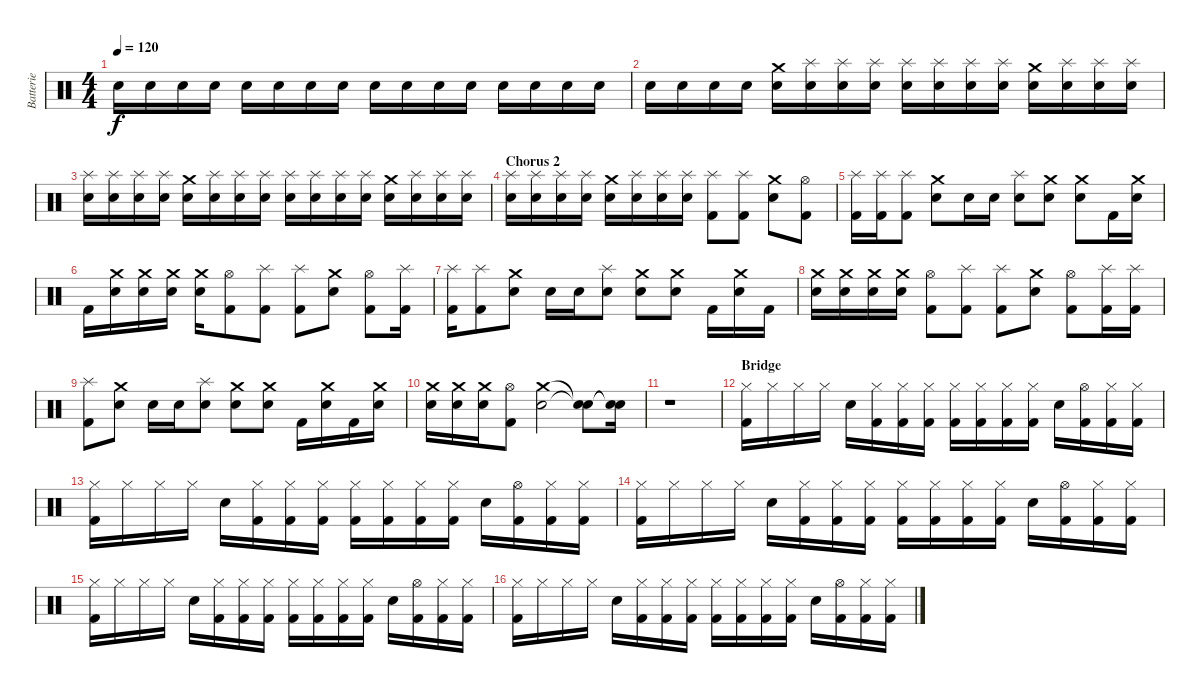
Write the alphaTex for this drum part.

\track ("Batterie" "Batterie") {instrument percussion}
\staff {score}
\articulation defaults
\ts (4 4)
\tempo 120
\clef neutral
\ks c "Snare (hit) 2".16{dy f} "Snare (hit) 2".16 "Snare (hit) 2".16 "Snare (hit) 2".16 "Snare (hit) 2".16 "Snare (hit) 2".16 "Snare (hit) 2".16 "Snare (hit) 2".16 "Snare (hit) 2".16{volume 8} "Snare (hit) 2".16{volume 13} "Snare (hit) 2".16 "Snare (hit) 2".16 "Snare (hit) 2".16 "Snare (hit) 2".16 "Snare (hit) 2".16 "Snare (hit) 2".16
|
"Snare (hit) 2".16 "Snare (hit) 2".16 "Snare (hit) 2".16 "Snare (hit) 2".16 ("Crash medium (hit)" "Snare (hit) 2").16{volume 16} ("Splash (hit)" "Snare (hit) 2").16 ("Splash (hit)" "Snare (hit) 2").16 ("Splash (hit)" "Snare (hit) 2").16 ("Splash (hit)" "Snare (hit) 2").16 ("Splash (hit)" "Snare (hit) 2").16 ("Splash (hit)" "Snare (hit) 2").16 ("Splash (hit)" "Snare (hit) 2").16 ("Crash medium (hit)" "Snare (hit) 2").16 ("Splash (hit)" "Snare (hit) 2").16 ("Splash (hit)" "Snare (hit) 2").16 ("Splash (hit)" "Snare (hit) 2").16 |
("Splash (hit)" "Snare (hit) 2").16 ("Splash (hit)" "Snare (hit) 2").16 ("Splash (hit)" "Snare (hit) 2").16 ("Splash (hit)" "Snare (hit) 2").16 ("Crash medium (hit)" "Snare (hit) 2").16 ("Splash (hit)" "Snare (hit) 2").16 ("Splash (hit)" "Snare (hit) 2").16 ("Splash (hit)" "Snare (hit) 2").16 ("Splash (hit)" "Snare (hit) 2").16 ("Splash (hit)" "Snare (hit) 2").16 ("Splash (hit)" "Snare (hit) 2").16 ("Splash (hit)" "Snare (hit) 2").16 ("Crash medium (hit)" "Snare (hit) 2").16 ("Splash (hit)" "Snare (hit) 2").16 ("Splash (hit)" "Snare (hit) 2").16 ("Splash (hit)" "Snare (hit) 2").16 |
\section ("" "Chorus 2")
("Splash (hit)" "Snare (hit) 2").16 ("Splash (hit)" "Snare (hit) 2").16 ("Splash (hit)" "Snare (hit) 2").16 ("Splash (hit)" "Snare (hit) 2").16 ("Crash medium (hit)" "Snare (hit) 2").16 ("Splash (hit)" "Snare (hit) 2").16 ("Splash (hit)" "Snare (hit) 2").16 ("Splash (hit)" "Snare (hit) 2").16 ("Splash (hit)" "Kick (hit) 2").8 ("Splash (hit)" "Kick (hit) 2").8 ("Crash medium (hit)" "Snare (hit) 2").8 ("Hi-Hat (open)" "Kick (hit) 2").8 |
("Splash (hit)" "Kick (hit) 2").16 ("Splash (hit)" "Kick (hit) 2").16 ("Splash (hit)" "Kick (hit) 2").8 ("Crash medium (hit)" "Snare (hit) 2").8 "Snare (hit) 2".16 "Snare (hit) 2".16 ("Splash (hit)" "Snare (hit) 2").8 ("Crash medium (hit)" "Snare (hit) 2").8 ("Crash medium (hit)" "Snare (hit) 2").8 "Kick (hit) 2".16 ("Crash medium (hit)" "Snare (hit) 2").16 |
"Kick (hit) 2".16 ("Crash medium (hit)" "Snare (hit) 2").16 ("Crash medium (hit)" "Snare (hit) 2").16 ("Crash medium (hit)" "Snare (hit) 2").16 ("Crash medium (hit)" "Snare (hit) 2").16 ("Hi-Hat (open)" "Kick (hit) 2").8 ("Splash (hit)" "Kick (hit) 2").8 ("Splash (hit)" "Kick (hit) 2").8 ("Crash medium (hit)" "Snare (hit) 2").8 ("Hi-Hat (open)" "Kick (hit) 2").8 ("Splash (hit)" "Kick (hit) 2").16 |
("Splash (hit)" "Kick (hit) 2").16 ("Splash (hit)" "Kick (hit) 2").8 ("Crash medium (hit)" "Snare (hit) 2").8 "Snare (hit) 2".16 "Snare (hit) 2".16 ("Splash (hit)" "Snare (hit) 2").8 ("Crash medium (hit)" "Snare (hit) 2").8 ("Crash medium (hit)" "Snare (hit) 2").8 "Kick (hit) 2".16 ("Crash medium (hit)" "Snare (hit) 2").16 "Kick (hit) 2".16 |
("Crash medium (hit)" "Snare (hit) 2").16 ("Crash medium (hit)" "Snare (hit) 2").16 ("Crash medium (hit)" "Snare (hit) 2").16 ("Crash medium (hit)" "Snare (hit) 2").16 ("Hi-Hat (open)" "Kick (hit) 2").8 ("Splash (hit)" "Kick (hit) 2").8 ("Splash (hit)" "Kick (hit) 2").8 ("Crash medium (hit)" "Snare (hit) 2").8 ("Hi-Hat (open)" "Kick (hit) 2").8 ("Splash (hit)" "Kick (hit) 2").16 ("Splash (hit)" "Kick (hit) 2").16 |
("Splash (hit)" "Kick (hit) 2").8 ("Crash medium (hit)" "Snare (hit) 2").8 "Snare (hit) 2".16 "Snare (hit) 2".16 ("Splash (hit)" "Snare (hit) 2").8 ("Crash medium (hit)" "Snare (hit) 2").8 ("Crash medium (hit)" "Snare (hit) 2").8 "Kick (hit) 2".16 ("Crash medium (hit)" "Snare (hit) 2").16 "Kick (hit) 2".16 ("Crash medium (hit)" "Snare (hit) 2").16 |
("Crash medium (hit)" "Snare (hit) 2").16 ("Crash medium (hit)" "Snare (hit) 2").16 ("Crash medium (hit)" "Snare (hit) 2").16 ("Hi-Hat (open)" "Kick (hit) 2").8 ("Crash medium (hit)" "Snare (hit) 2").2 ("Snare (hit)"{t} "Snare (hit)"{t}).8 ("Snare (hit)"{t} "Snare (hit)"{t}).16 |
r.1 |
\section ("" "Bridge")
("Hi-Hat (closed)" "Kick (hit) 2").16 "Hi-Hat (closed)".16 "Hi-Hat (closed)".16 "Hi-Hat (closed)".16 "Snare (hit) 2".16 ("Hi-Hat (closed)" "Kick (hit) 2").16 ("Hi-Hat (closed)" "Kick (hit) 2").16 ("Hi-Hat (closed)" "Kick (hit) 2").16 ("Hi-Hat (closed)" "Kick (hit) 2").16 ("Hi-Hat (closed)" "Kick (hit) 2").16 ("Hi-Hat (closed)" "Kick (hit) 2").16 ("Hi-Hat (closed)" "Kick (hit) 2").16 "Snare (hit) 2".16 ("Hi-Hat (open)" "Kick (hit) 2").16 ("Hi-Hat (closed)" "Kick (hit) 2").16 ("Hi-Hat (closed)" "Kick (hit) 2").16 |
("Hi-Hat (closed)" "Kick (hit) 2").16 "Hi-Hat (closed)".16 "Hi-Hat (closed)".16 "Hi-Hat (closed)".16 "Snare (hit) 2".16 ("Hi-Hat (closed)" "Kick (hit) 2").16 ("Hi-Hat (closed)" "Kick (hit) 2").16 ("Hi-Hat (closed)" "Kick (hit) 2").16 ("Hi-Hat (closed)" "Kick (hit) 2").16 ("Hi-Hat (closed)" "Kick (hit) 2").16 ("Hi-Hat (closed)" "Kick (hit) 2").16 ("Hi-Hat (closed)" "Kick (hit) 2").16 "Snare (hit) 2".16 ("Hi-Hat (open)" "Kick (hit) 2").16 ("Hi-Hat (closed)" "Kick (hit) 2").16 ("Hi-Hat (closed)" "Kick (hit) 2").16 |
("Hi-Hat (closed)" "Kick (hit) 2").16 "Hi-Hat (closed)".16 "Hi-Hat (closed)".16 "Hi-Hat (closed)".16 "Snare (hit) 2".16 ("Hi-Hat (closed)" "Kick (hit) 2").16 ("Hi-Hat (closed)" "Kick (hit) 2").16 ("Hi-Hat (closed)" "Kick (hit) 2").16 ("Hi-Hat (closed)" "Kick (hit) 2").16 ("Hi-Hat (closed)" "Kick (hit) 2").16 ("Hi-Hat (closed)" "Kick (hit) 2").16 ("Hi-Hat (closed)" "Kick (hit) 2").16 "Snare (hit) 2".16 ("Hi-Hat (open)" "Kick (hit) 2").16 ("Hi-Hat (closed)" "Kick (hit) 2").16 ("Hi-Hat (closed)" "Kick (hit) 2").16 |
("Hi-Hat (closed)" "Kick (hit) 2").16 "Hi-Hat (closed)".16 "Hi-Hat (closed)".16 "Hi-Hat (closed)".16 "Snare (hit) 2".16 ("Hi-Hat (closed)" "Kick (hit) 2").16 ("Hi-Hat (closed)" "Kick (hit) 2").16 ("Hi-Hat (closed)" "Kick (hit) 2").16 ("Hi-Hat (closed)" "Kick (hit) 2").16 ("Hi-Hat (closed)" "Kick (hit) 2").16 ("Hi-Hat (closed)" "Kick (hit) 2").16 ("Hi-Hat (closed)" "Kick (hit) 2").16 "Snare (hit) 2".16 ("Hi-Hat (open)" "Kick (hit) 2").16 ("Hi-Hat (closed)" "Kick (hit) 2").16 ("Hi-Hat (closed)" "Kick (hit) 2").16 |
("Hi-Hat (closed)" "Kick (hit) 2").16 "Hi-Hat (closed)".16 "Hi-Hat (closed)".16 "Hi-Hat (closed)".16 "Snare (hit) 2".16 ("Hi-Hat (closed)" "Kick (hit) 2").16 ("Hi-Hat (closed)" "Kick (hit) 2").16 ("Hi-Hat (closed)" "Kick (hit) 2").16 ("Hi-Hat (closed)" "Kick (hit) 2").16 ("Hi-Hat (closed)" "Kick (hit) 2").16 ("Hi-Hat (closed)" "Kick (hit) 2").16 ("Hi-Hat (closed)" "Kick (hit) 2").16 "Snare (hit) 2".16 ("Hi-Hat (open)" "Kick (hit) 2").16 ("Hi-Hat (closed)" "Kick (hit) 2").16 ("Hi-Hat (closed)" "Kick (hit) 2").16
